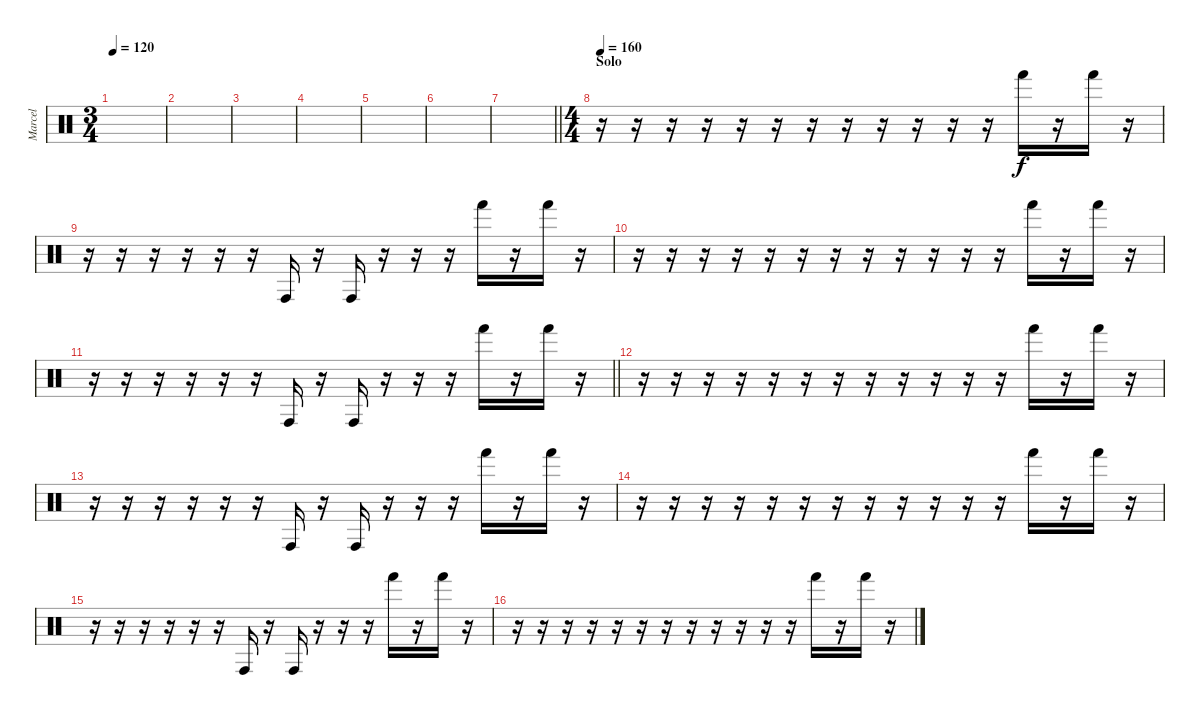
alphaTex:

\track ("Marcel" "Marcel") {instrument percussion}
\staff {score}
\articulation defaults
\ts (3 4)
\tempo 120
\clef neutral
\ks c
|
|
|
|
|
|
\barLineRight lightlight
|
\ts (4 4)
\section ("" "Solo")
\tempo 160
r.16 r.16 r.16 r.16 r.16 r.16 r.16 r.16 r.16 r.16 r.16 r.16 "Hand (hit)".16 r.16 "Hand (hit)".16 r.16 |
r.16 r.16 r.16 r.16 r.16 r.16 "Conga high (hit)".16 r.16 "Conga high (hit)".16 r.16 r.16 r.16 "Hand (hit)".16 r.16 "Hand (hit)".16 r.16 |
r.16 r.16 r.16 r.16 r.16 r.16 r.16 r.16 r.16 r.16 r.16 r.16 "Hand (hit)".16 r.16 "Hand (hit)".16 r.16 |
\barLineRight lightlight
r.16 r.16 r.16 r.16 r.16 r.16 "Conga high (hit)".16 r.16 "Conga high (hit)".16 r.16 r.16 r.16 "Hand (hit)".16 r.16 "Hand (hit)".16 r.16 |
r.16 r.16 r.16 r.16 r.16 r.16 r.16 r.16 r.16 r.16 r.16 r.16 "Hand (hit)".16 r.16 "Hand (hit)".16 r.16 |
r.16 r.16 r.16 r.16 r.16 r.16 "Conga high (hit)".16 r.16 "Conga high (hit)".16 r.16 r.16 r.16 "Hand (hit)".16 r.16 "Hand (hit)".16 r.16 |
r.16 r.16 r.16 r.16 r.16 r.16 r.16 r.16 r.16 r.16 r.16 r.16 "Hand (hit)".16 r.16 "Hand (hit)".16 r.16 |
r.16 r.16 r.16 r.16 r.16 r.16 "Conga high (hit)".16 r.16 "Conga high (hit)".16 r.16 r.16 r.16 "Hand (hit)".16 r.16 "Hand (hit)".16 r.16 |
r.16 r.16 r.16 r.16 r.16 r.16 r.16 r.16 r.16 r.16 r.16 r.16 "Hand (hit)".16 r.16 "Hand (hit)".16 r.16
